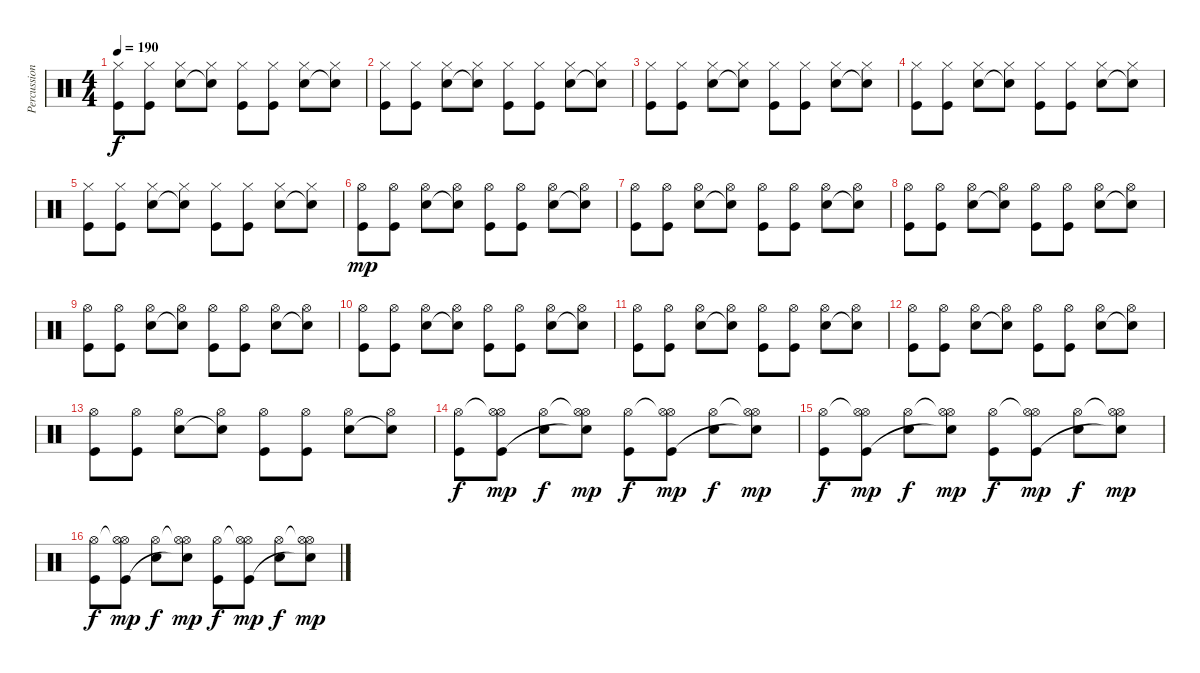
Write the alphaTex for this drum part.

\track ("Percussions" "Percussion") {instrument percussion}
\staff {score}
\articulation defaults
\ts (4 4)
\tempo 190
\clef neutral
\ks c
("Hi-Hat (closed)" "Kick (hit)").8{dy f} ("Hi-Hat (closed)" "Kick (hit)").8 ("Hi-Hat (closed)" "Electric Snare (hit)").8 ("Hi-Hat (closed)" "Snare (hit)"{t}).8 ("Hi-Hat (closed)" "Kick (hit)").8 ("Hi-Hat (closed)" "Kick (hit)").8 ("Hi-Hat (closed)" "Electric Snare (hit)").8 ("Hi-Hat (closed)" "Snare (hit)"{t}).8 |
("Hi-Hat (closed)" "Kick (hit)").8 ("Hi-Hat (closed)" "Kick (hit)").8 ("Hi-Hat (closed)" "Electric Snare (hit)").8 ("Hi-Hat (closed)" "Snare (hit)"{t}).8 ("Hi-Hat (closed)" "Kick (hit)").8 ("Hi-Hat (closed)" "Kick (hit)").8 ("Hi-Hat (closed)" "Electric Snare (hit)").8 ("Hi-Hat (closed)" "Snare (hit)"{t}).8 |
("Hi-Hat (closed)" "Kick (hit)").8 ("Hi-Hat (closed)" "Kick (hit)").8 ("Hi-Hat (closed)" "Electric Snare (hit)").8 ("Hi-Hat (closed)" "Snare (hit)"{t}).8 ("Hi-Hat (closed)" "Kick (hit)").8 ("Hi-Hat (closed)" "Kick (hit)").8 ("Hi-Hat (closed)" "Electric Snare (hit)").8 ("Hi-Hat (closed)" "Snare (hit)"{t}).8 |
("Hi-Hat (closed)" "Kick (hit)").8 ("Hi-Hat (closed)" "Kick (hit)").8 ("Hi-Hat (closed)" "Electric Snare (hit)").8 ("Hi-Hat (closed)" "Snare (hit)"{t}).8 ("Hi-Hat (closed)" "Kick (hit)").8 ("Hi-Hat (closed)" "Kick (hit)").8 ("Hi-Hat (closed)" "Electric Snare (hit)").8 ("Hi-Hat (closed)" "Snare (hit)"{t}).8 |
("Hi-Hat (closed)" "Kick (hit)").8 ("Hi-Hat (closed)" "Kick (hit)").8 ("Hi-Hat (closed)" "Electric Snare (hit)").8 ("Hi-Hat (closed)" "Snare (hit)"{t}).8 ("Hi-Hat (closed)" "Kick (hit)").8 ("Hi-Hat (closed)" "Kick (hit)").8 ("Hi-Hat (closed)" "Electric Snare (hit)").8 ("Hi-Hat (closed)" "Snare (hit)"{t}).8 |
("Hi-Hat (open)" "Kick (hit)").8{dy mp} ("Hi-Hat (open)" "Kick (hit)").8 ("Hi-Hat (open)" "Electric Snare (hit)").8 ("Hi-Hat (open)" "Snare (hit)"{t}).8 ("Hi-Hat (open)" "Kick (hit)").8 ("Hi-Hat (open)" "Kick (hit)").8 ("Hi-Hat (open)" "Electric Snare (hit)").8 ("Hi-Hat (open)" "Snare (hit)"{t}).8 |
("Hi-Hat (open)" "Kick (hit)").8 ("Hi-Hat (open)" "Kick (hit)").8 ("Hi-Hat (open)" "Electric Snare (hit)").8 ("Hi-Hat (open)" "Snare (hit)"{t}).8 ("Hi-Hat (open)" "Kick (hit)").8 ("Hi-Hat (open)" "Kick (hit)").8 ("Hi-Hat (open)" "Electric Snare (hit)").8 ("Hi-Hat (open)" "Snare (hit)"{t}).8 |
("Hi-Hat (open)" "Kick (hit)").8 ("Hi-Hat (open)" "Kick (hit)").8 ("Hi-Hat (open)" "Electric Snare (hit)").8 ("Hi-Hat (open)" "Snare (hit)"{t}).8 ("Hi-Hat (open)" "Kick (hit)").8 ("Hi-Hat (open)" "Kick (hit)").8 ("Hi-Hat (open)" "Electric Snare (hit)").8 ("Hi-Hat (open)" "Snare (hit)"{t}).8 |
("Hi-Hat (open)" "Kick (hit)").8 ("Hi-Hat (open)" "Kick (hit)").8 ("Hi-Hat (open)" "Electric Snare (hit)").8 ("Hi-Hat (open)" "Snare (hit)"{t}).8 ("Hi-Hat (open)" "Kick (hit)").8 ("Hi-Hat (open)" "Kick (hit)").8 ("Hi-Hat (open)" "Electric Snare (hit)").8 ("Hi-Hat (open)" "Snare (hit)"{t}).8 |
("Hi-Hat (open)" "Kick (hit)").8 ("Hi-Hat (open)" "Kick (hit)").8 ("Hi-Hat (open)" "Electric Snare (hit)").8 ("Hi-Hat (open)" "Snare (hit)"{t}).8 ("Hi-Hat (open)" "Kick (hit)").8 ("Hi-Hat (open)" "Kick (hit)").8 ("Hi-Hat (open)" "Electric Snare (hit)").8 ("Hi-Hat (open)" "Snare (hit)"{t}).8 |
("Hi-Hat (open)" "Kick (hit)").8 ("Hi-Hat (open)" "Kick (hit)").8 ("Hi-Hat (open)" "Electric Snare (hit)").8 ("Hi-Hat (open)" "Snare (hit)"{t}).8 ("Hi-Hat (open)" "Kick (hit)").8 ("Hi-Hat (open)" "Kick (hit)").8 ("Hi-Hat (open)" "Electric Snare (hit)").8 ("Hi-Hat (open)" "Snare (hit)"{t}).8 |
("Hi-Hat (open)" "Kick (hit)").8 ("Hi-Hat (open)" "Kick (hit)").8 ("Hi-Hat (open)" "Electric Snare (hit)").8 ("Hi-Hat (open)" "Snare (hit)"{t}).8 ("Hi-Hat (open)" "Kick (hit)").8 ("Hi-Hat (open)" "Kick (hit)").8 ("Hi-Hat (open)" "Electric Snare (hit)").8 ("Hi-Hat (open)" "Snare (hit)"{t}).8 |
("Hi-Hat (open)" "Kick (hit)").8 ("Hi-Hat (open)" "Kick (hit)").8 ("Hi-Hat (open)" "Electric Snare (hit)").8 ("Hi-Hat (open)" "Snare (hit)"{t}).8 ("Hi-Hat (open)" "Kick (hit)").8 ("Hi-Hat (open)" "Kick (hit)").8 ("Hi-Hat (open)" "Electric Snare (hit)").8 ("Hi-Hat (open)" "Snare (hit)"{t}).8 |
("Hi-Hat (open)" "Kick (hit)").8{dy f} ("Hi-Hat (open)"{t} "Hi-Hat (open)" "Kick (hit)").8{dy mp} ("Hi-Hat (open)" "Electric Snare (hit)").8{dy f} ("Hi-Hat (open)"{t} "Hi-Hat (open)" "Snare (hit)"{t}).8{dy mp} ("Hi-Hat (open)" "Kick (hit)").8{dy f} ("Hi-Hat (open)"{t} "Hi-Hat (open)" "Kick (hit)").8{dy mp} ("Hi-Hat (open)" "Electric Snare (hit)").8{dy f} ("Hi-Hat (open)"{t} "Hi-Hat (open)" "Snare (hit)"{t}).8{dy mp} |
("Hi-Hat (open)" "Kick (hit)").8{dy f} ("Hi-Hat (open)"{t} "Hi-Hat (open)" "Kick (hit)").8{dy mp} ("Hi-Hat (open)" "Electric Snare (hit)").8{dy f} ("Hi-Hat (open)"{t} "Hi-Hat (open)" "Snare (hit)"{t}).8{dy mp} ("Hi-Hat (open)" "Kick (hit)").8{dy f} ("Hi-Hat (open)"{t} "Hi-Hat (open)" "Kick (hit)").8{dy mp} ("Hi-Hat (open)" "Electric Snare (hit)").8{dy f} ("Hi-Hat (open)"{t} "Hi-Hat (open)" "Snare (hit)"{t}).8{dy mp} |
("Hi-Hat (open)" "Kick (hit)").8{dy f} ("Hi-Hat (open)"{t} "Hi-Hat (open)" "Kick (hit)").8{dy mp} ("Hi-Hat (open)" "Electric Snare (hit)").8{dy f} ("Hi-Hat (open)"{t} "Hi-Hat (open)" "Snare (hit)"{t}).8{dy mp} ("Hi-Hat (open)" "Kick (hit)").8{dy f} ("Hi-Hat (open)"{t} "Hi-Hat (open)" "Kick (hit)").8{dy mp} ("Hi-Hat (open)" "Electric Snare (hit)").8{dy f} ("Hi-Hat (open)"{t} "Hi-Hat (open)" "Snare (hit)"{t}).8{dy mp}
